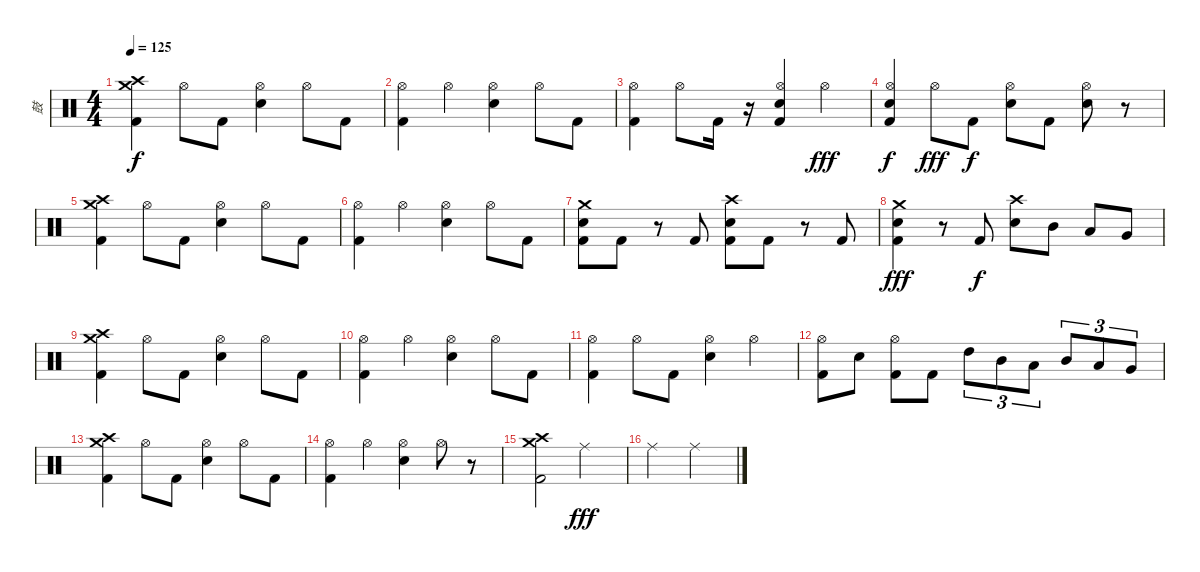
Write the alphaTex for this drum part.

\track ("鼓" "鼓") {instrument percussion}
\staff {score}
\articulation defaults
\ts (4 4)
\tempo 125
\clef neutral
\ks c
("Crash medium (hit)" "Crash high (hit)" "Kick (hit) 2").4{dy f} "Hi-Hat (open)".8 "Kick (hit) 2".8 ("Hi-Hat (open)" "Snare (hit) 2").4 "Hi-Hat (open)".8 "Kick (hit) 2".8 |
("Hi-Hat (open)" "Kick (hit) 2").4 "Hi-Hat (open)".4 ("Snare (hit) 2" "Hi-Hat (open)").4 "Hi-Hat (open)".8 "Kick (hit) 2".8 |
("Hi-Hat (open)" "Kick (hit) 2").4 "Hi-Hat (open)".8 "Kick (hit) 2".16 r.16 ("Hi-Hat (open)" "Snare (hit) 2" "Kick (hit) 2").4 "Hi-Hat (open)".4{dy fff} |
("Hi-Hat (open)" "Snare (hit) 2" "Kick (hit) 2").4{dy f} "Hi-Hat (open)".8{dy fff} "Kick (hit) 2".8{dy f} ("Snare (hit) 2" "Hi-Hat (open)").8 "Kick (hit) 2".8 ("Hi-Hat (open)" "Snare (hit) 2").8 r.8 |
("Crash medium (hit)" "Crash high (hit)" "Kick (hit) 2").4 "Hi-Hat (open)".8 "Kick (hit) 2".8 ("Hi-Hat (open)" "Snare (hit) 2").4 "Hi-Hat (open)".8 "Kick (hit) 2".8 |
("Hi-Hat (open)" "Kick (hit) 2").4 "Hi-Hat (open)".4 ("Snare (hit) 2" "Hi-Hat (open)").4 "Hi-Hat (open)".8 "Kick (hit) 2".8 |
("Snare (hit) 2" "Crash medium (hit)" "Kick (hit) 2").8 "Kick (hit) 2".8 r.8 "Kick (hit) 2".8 ("Crash high (hit)" "Snare (hit) 2" "Kick (hit) 2").8 "Kick (hit) 2".8 r.8 "Kick (hit) 2".8 |
("Crash medium (hit)" "Snare (hit) 2" "Kick (hit) 2").4{dy fff} r.8 "Kick (hit) 2".8{dy f} ("Snare (hit) 2" "Crash high (hit)").8 "Mid Tom (hit)".8 "Low Tom (hit)".8 "Very Low Tom (hit)".8 |
("Crash medium (hit)" "Crash high (hit)" "Kick (hit) 2").4 "Hi-Hat (open)".8 "Kick (hit) 2".8 ("Hi-Hat (open)" "Snare (hit) 2").4 "Hi-Hat (open)".8 "Kick (hit) 2".8 |
("Hi-Hat (open)" "Kick (hit) 2").4 "Hi-Hat (open)".4 ("Snare (hit) 2" "Hi-Hat (open)").4 "Hi-Hat (open)".8 "Kick (hit) 2".8 |
("Hi-Hat (open)" "Kick (hit) 2").4 "Hi-Hat (open)".8 "Kick (hit) 2".8 ("Hi-Hat (open)" "Snare (hit) 2").4 "Hi-Hat (open)".4 |
("Hi-Hat (open)" "Kick (hit) 2").8 "Snare (hit) 2".8 ("Hi-Hat (open)" "Kick (hit) 2").8 "Kick (hit) 2".8 "High Tom (hit)".8{tu (3 2)} "Mid Tom (hit)".8{tu (3 2)} "Low Tom (hit)".8{tu (3 2)} "Mid Tom (hit)".8{tu (3 2)} "Low Tom (hit)".8{tu (3 2)} "Very Low Tom (hit)".8{tu (3 2)} |
("Crash medium (hit)" "Crash high (hit)" "Kick (hit) 2").4 "Hi-Hat (open)".8 "Kick (hit) 2".8 ("Hi-Hat (open)" "Snare (hit) 2").4 "Hi-Hat (open)".8 "Kick (hit) 2".8 |
("Hi-Hat (open)" "Kick (hit) 2").4 "Hi-Hat (open)".4 ("Snare (hit) 2" "Hi-Hat (open)").4 "Hi-Hat (open)".8 r.8 |
("Crash medium (hit)" "Crash high (hit)" "Kick (hit) 2").2 "Ride (middle)".2{dy fff} |
"Ride (middle)".2 "Ride (middle)".2
